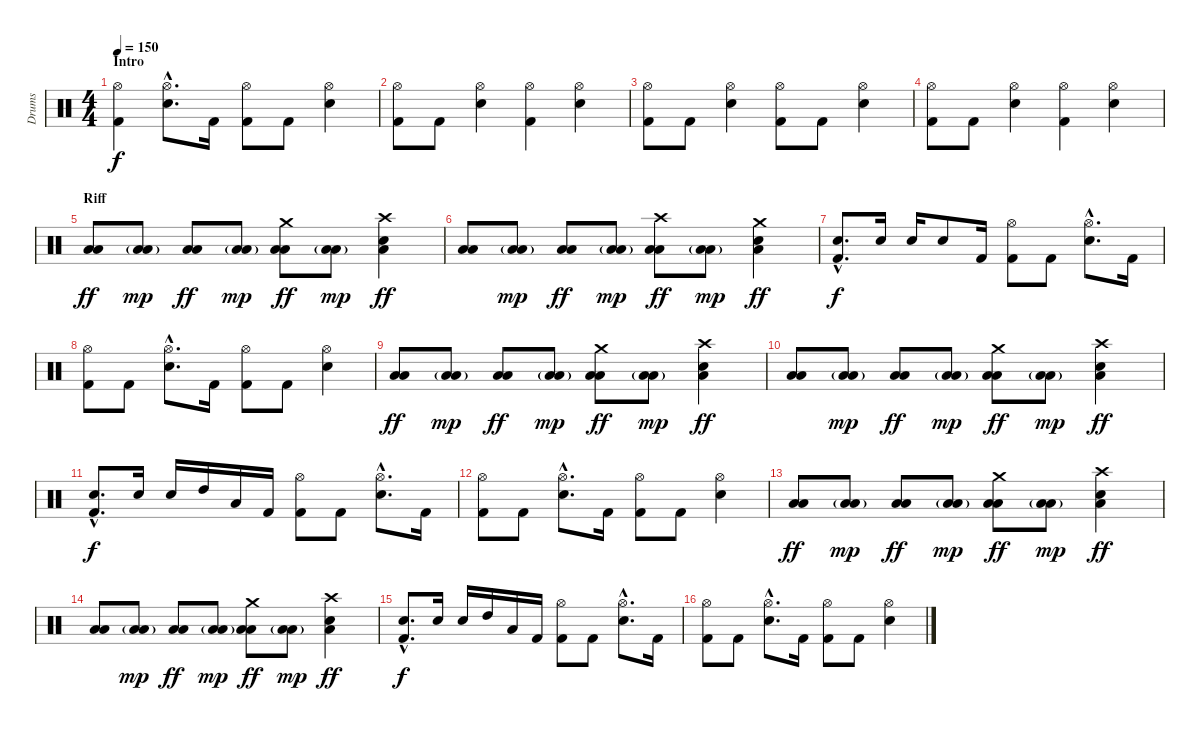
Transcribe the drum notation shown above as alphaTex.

\track ("Drums" "Drums") {instrument percussion}
\staff {score}
\articulation defaults
\ts (4 4)
\section ("" "Intro")
\tempo 150
\clef neutral
\ks c
("Hi-Hat (open)" "Kick (hit) 2").4{dy f} ("Hi-Hat (open)"{hac} "Snare (hit) 2"{hac}).8{d} "Kick (hit) 2".16 ("Hi-Hat (open)" "Kick (hit) 2").8 "Kick (hit) 2".8 ("Hi-Hat (open)" "Snare (hit) 2").4 |
("Hi-Hat (open)" "Kick (hit) 2").8 "Kick (hit) 2".8 ("Hi-Hat (open)" "Snare (hit) 2").4 ("Hi-Hat (open)" "Kick (hit) 2").4 ("Hi-Hat (open)" "Snare (hit) 2").4 |
("Hi-Hat (open)" "Kick (hit) 2").8 "Kick (hit) 2".8 ("Hi-Hat (open)" "Snare (hit) 2").4 ("Hi-Hat (open)" "Kick (hit) 2").8 "Kick (hit) 2".8 ("Hi-Hat (open)" "Snare (hit) 2").4 |
("Hi-Hat (open)" "Kick (hit) 2").8 "Kick (hit) 2".8 ("Hi-Hat (open)" "Snare (hit) 2").4 ("Hi-Hat (open)" "Kick (hit) 2").4 ("Hi-Hat (open)" "Snare (hit) 2").4 |
\section ("" "Riff")
("Low Tom (hit)" "Low Floor Tom (hit)").8{dy ff} ("Low Tom (hit)"{g} "Low Floor Tom (hit)"{g}).8{dy mp} ("Low Tom (hit)" "Low Floor Tom (hit)").8{dy ff} ("Low Tom (hit)"{g} "Low Floor Tom (hit)"{g}).8{dy mp} ("Crash medium (hit)" "Low Tom (hit)" "Low Floor Tom (hit)").8{dy ff} ("Low Tom (hit)"{g} "Low Floor Tom (hit)"{g}).8{dy mp} ("Crash high (hit)" "Snare (hit) 2" "Low Floor Tom (hit)").4{dy ff} |
("Low Tom (hit)" "Low Floor Tom (hit)").8 ("Low Tom (hit)"{g} "Low Floor Tom (hit)"{g}).8{dy mp} ("Low Tom (hit)" "Low Floor Tom (hit)").8{dy ff} ("Low Tom (hit)"{g} "Low Floor Tom (hit)"{g}).8{dy mp} ("Crash high (hit)" "Low Tom (hit)" "Low Floor Tom (hit)").8{dy ff} ("Low Tom (hit)"{g} "Low Floor Tom (hit)"{g}).8{dy mp} ("Crash medium (hit)" "Snare (hit) 2" "Low Floor Tom (hit)").4{dy ff} |
("Snare (hit) 2"{hac} "Kick (hit) 2"{hac}).8{d dy f} "Snare (hit) 2".16 "Snare (hit) 2".16 "Snare (hit) 2".8 "Kick (hit) 2".16 ("Hi-Hat (open)" "Kick (hit) 2").8 "Kick (hit) 2".8 ("Hi-Hat (open)"{hac} "Snare (hit) 2"{hac}).8{d} "Kick (hit) 2".16 |
("Hi-Hat (open)" "Kick (hit) 2").8 "Kick (hit) 2".8 ("Hi-Hat (open)"{hac} "Snare (hit) 2"{hac}).8{d} "Kick (hit) 2".16 ("Hi-Hat (open)" "Kick (hit) 2").8 "Kick (hit) 2".8 ("Hi-Hat (open)" "Snare (hit) 2").4 |
\section ("" "")
("Low Tom (hit)" "Low Floor Tom (hit)").8{dy ff} ("Low Tom (hit)"{g} "Low Floor Tom (hit)"{g}).8{dy mp} ("Low Tom (hit)" "Low Floor Tom (hit)").8{dy ff} ("Low Tom (hit)"{g} "Low Floor Tom (hit)"{g}).8{dy mp} ("Crash medium (hit)" "Low Tom (hit)" "Low Floor Tom (hit)").8{dy ff} ("Low Tom (hit)"{g} "Low Floor Tom (hit)"{g}).8{dy mp} ("Crash high (hit)" "Snare (hit) 2" "Low Floor Tom (hit)").4{dy ff} |
("Low Tom (hit)" "Low Floor Tom (hit)").8 ("Low Tom (hit)"{g} "Low Floor Tom (hit)"{g}).8{dy mp} ("Low Tom (hit)" "Low Floor Tom (hit)").8{dy ff} ("Low Tom (hit)"{g} "Low Floor Tom (hit)"{g}).8{dy mp} ("Crash medium (hit)" "Low Tom (hit)" "Low Floor Tom (hit)").8{dy ff} ("Low Tom (hit)"{g} "Low Floor Tom (hit)"{g}).8{dy mp} ("Crash high (hit)" "Snare (hit) 2" "Low Floor Tom (hit)").4{dy ff} |
("Snare (hit) 2"{hac} "Kick (hit) 2"{hac}).8{d dy f} "Snare (hit) 2".16 "Snare (hit) 2".16 "High Tom (hit)".16 "Low Tom (hit)".16 "Kick (hit) 2".16 ("Hi-Hat (open)" "Kick (hit) 2").8 "Kick (hit) 2".8 ("Hi-Hat (open)"{hac} "Snare (hit) 2"{hac}).8{d} "Kick (hit) 2".16 |
("Hi-Hat (open)" "Kick (hit) 2").8 "Kick (hit) 2".8 ("Hi-Hat (open)"{hac} "Snare (hit) 2"{hac}).8{d} "Kick (hit) 2".16 ("Hi-Hat (open)" "Kick (hit) 2").8 "Kick (hit) 2".8 ("Hi-Hat (open)" "Snare (hit) 2").4 |
\section ("" "")
("Low Tom (hit)" "Low Floor Tom (hit)").8{dy ff} ("Low Tom (hit)"{g} "Low Floor Tom (hit)"{g}).8{dy mp} ("Low Tom (hit)" "Low Floor Tom (hit)").8{dy ff} ("Low Tom (hit)"{g} "Low Floor Tom (hit)"{g}).8{dy mp} ("Crash medium (hit)" "Low Tom (hit)" "Low Floor Tom (hit)").8{dy ff} ("Low Tom (hit)"{g} "Low Floor Tom (hit)"{g}).8{dy mp} ("Crash high (hit)" "Snare (hit) 2" "Low Floor Tom (hit)").4{dy ff} |
("Low Tom (hit)" "Low Floor Tom (hit)").8 ("Low Tom (hit)"{g} "Low Floor Tom (hit)"{g}).8{dy mp} ("Low Tom (hit)" "Low Floor Tom (hit)").8{dy ff} ("Low Tom (hit)"{g} "Low Floor Tom (hit)"{g}).8{dy mp} ("Crash medium (hit)" "Low Tom (hit)" "Low Floor Tom (hit)").8{dy ff} ("Low Tom (hit)"{g} "Low Floor Tom (hit)"{g}).8{dy mp} ("Crash high (hit)" "Snare (hit) 2" "Low Floor Tom (hit)").4{dy ff} |
("Snare (hit) 2"{hac} "Kick (hit) 2"{hac}).8{d dy f} "Snare (hit) 2".16 "Snare (hit) 2".16 "High Tom (hit)".16 "Low Tom (hit)".16 "Kick (hit) 2".16 ("Hi-Hat (open)" "Kick (hit) 2").8 "Kick (hit) 2".8 ("Hi-Hat (open)"{hac} "Snare (hit) 2"{hac}).8{d} "Kick (hit) 2".16 |
("Hi-Hat (open)" "Kick (hit) 2").8 "Kick (hit) 2".8 ("Hi-Hat (open)"{hac} "Snare (hit) 2"{hac}).8{d} "Kick (hit) 2".16 ("Hi-Hat (open)" "Kick (hit) 2").8 "Kick (hit) 2".8 ("Hi-Hat (open)" "Snare (hit) 2").4
